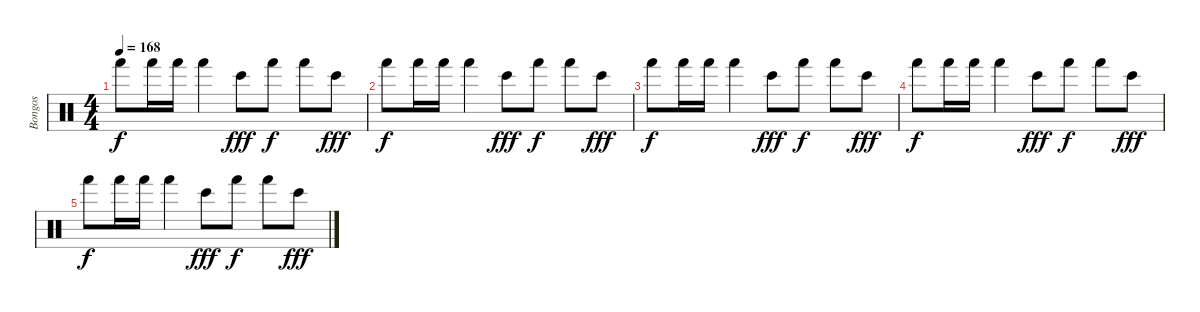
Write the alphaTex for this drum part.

\track ("Bongos" "Bongos") {instrument percussion}
\staff {score}
\articulation defaults
\ts (4 4)
\tempo 168
\clef neutral
\ks c "Hand (hit)".8{dy f} "Hand (hit)".16 "Hand (hit)".16 "Hand (hit)".4 "Bongo High (hit)".8{dy fff} "Hand (hit)".8{dy f} "Hand (hit)".8 "Bongo High (hit)".8{dy fff}
|
"Hand (hit)".8{dy f} "Hand (hit)".16 "Hand (hit)".16 "Hand (hit)".4 "Bongo High (hit)".8{dy fff} "Hand (hit)".8{dy f} "Hand (hit)".8 "Bongo High (hit)".8{dy fff} |
"Hand (hit)".8{dy f} "Hand (hit)".16 "Hand (hit)".16 "Hand (hit)".4 "Bongo High (hit)".8{dy fff} "Hand (hit)".8{dy f} "Hand (hit)".8 "Bongo High (hit)".8{dy fff} |
"Hand (hit)".8{dy f} "Hand (hit)".16 "Hand (hit)".16 "Hand (hit)".4 "Bongo High (hit)".8{dy fff} "Hand (hit)".8{dy f} "Hand (hit)".8 "Bongo High (hit)".8{dy fff} |
"Hand (hit)".8{dy f} "Hand (hit)".16 "Hand (hit)".16 "Hand (hit)".4 "Bongo High (hit)".8{dy fff} "Hand (hit)".8{dy f} "Hand (hit)".8 "Bongo High (hit)".8{dy fff}
